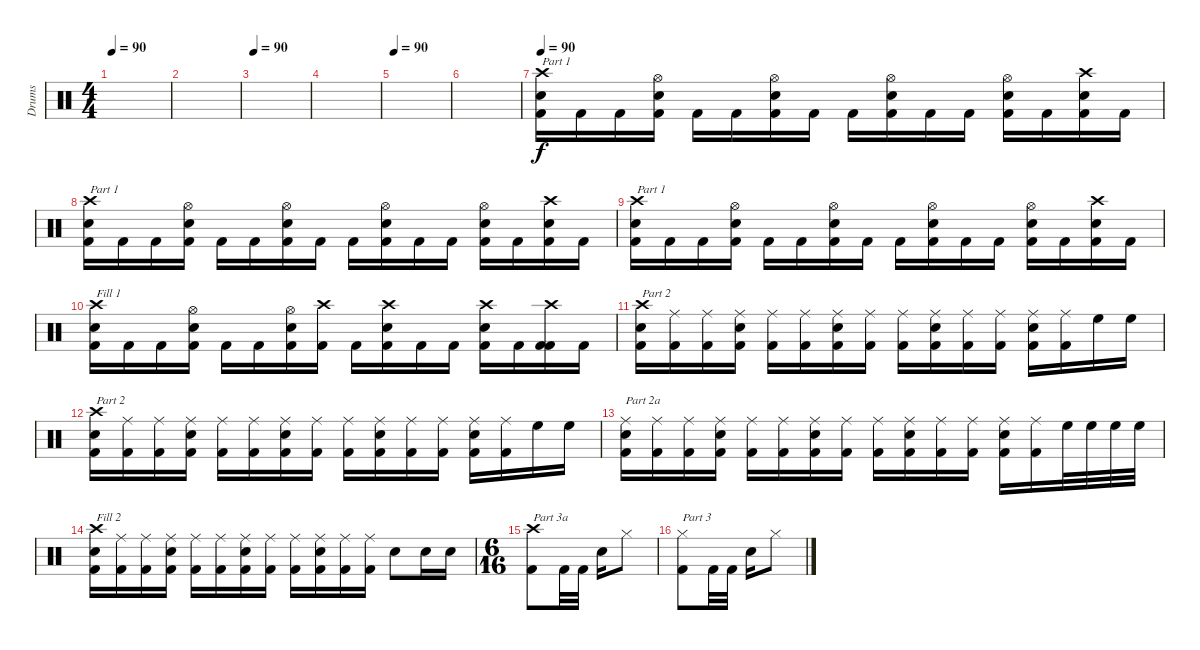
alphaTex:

\track ("Drums" "Drums") {instrument percussion}
\staff {score}
\articulation defaults
\ts (4 4)
\tempo 90
\tempo 85
\tempo 90
\clef neutral
\ks c
|
|
\tempo 90
|
|
\tempo 90
|
|
\tempo 90
("Crash high (hit)" "Snare (hit) 2" "Kick (hit) 2").16{txt "Part 1"} "Kick (hit) 2".16 "Kick (hit) 2".16 ("Hi-Hat (open)" "Snare (hit) 2" "Kick (hit) 2").16 "Kick (hit) 2".16 "Kick (hit) 2".16 ("Hi-Hat (open)" "Snare (hit) 2" "Kick (hit) 2").16 "Kick (hit) 2".16 "Kick (hit) 2".16 ("Hi-Hat (open)" "Snare (hit) 2" "Kick (hit) 2").16 "Kick (hit) 2".16 "Kick (hit) 2".16 ("Hi-Hat (open)" "Snare (hit) 2" "Kick (hit) 2").16 "Kick (hit) 2".16 ("Crash high (hit)" "Snare (hit) 2" "Kick (hit) 2").16 "Kick (hit) 2".16 |
("Crash high (hit)" "Snare (hit) 2" "Kick (hit) 2").16{txt "Part 1"} "Kick (hit) 2".16 "Kick (hit) 2".16 ("Hi-Hat (open)" "Snare (hit) 2" "Kick (hit) 2").16 "Kick (hit) 2".16 "Kick (hit) 2".16 ("Hi-Hat (open)" "Snare (hit) 2" "Kick (hit) 2").16 "Kick (hit) 2".16 "Kick (hit) 2".16 ("Hi-Hat (open)" "Snare (hit) 2" "Kick (hit) 2").16 "Kick (hit) 2".16 "Kick (hit) 2".16 ("Hi-Hat (open)" "Snare (hit) 2" "Kick (hit) 2").16 "Kick (hit) 2".16 ("Crash high (hit)" "Snare (hit) 2" "Kick (hit) 2").16 "Kick (hit) 2".16 |
("Crash high (hit)" "Snare (hit) 2" "Kick (hit) 2").16{txt "Part 1"} "Kick (hit) 2".16 "Kick (hit) 2".16 ("Hi-Hat (open)" "Snare (hit) 2" "Kick (hit) 2").16 "Kick (hit) 2".16 "Kick (hit) 2".16 ("Hi-Hat (open)" "Snare (hit) 2" "Kick (hit) 2").16 "Kick (hit) 2".16 "Kick (hit) 2".16 ("Hi-Hat (open)" "Snare (hit) 2" "Kick (hit) 2").16 "Kick (hit) 2".16 "Kick (hit) 2".16 ("Hi-Hat (open)" "Snare (hit) 2" "Kick (hit) 2").16 "Kick (hit) 2".16 ("Crash high (hit)" "Snare (hit) 2" "Kick (hit) 2").16 "Kick (hit) 2".16 |
("Crash high (hit)" "Snare (hit) 2" "Kick (hit) 2").16{txt "Fill 1"} "Kick (hit) 2".16 "Kick (hit) 2".16 ("Hi-Hat (open)" "Snare (hit) 2" "Kick (hit) 2").16 "Kick (hit) 2".16 "Kick (hit) 2".16 ("Hi-Hat (open)" "Snare (hit) 2" "Kick (hit) 2").16 ("Crash high (hit)" "Kick (hit) 2").16 "Kick (hit) 2".16 ("Crash high (hit)" "Snare (hit) 2" "Kick (hit) 2").16 "Kick (hit) 2".16 "Kick (hit) 2".16 ("Crash high (hit)" "Snare (hit) 2" "Kick (hit) 2").16 "Kick (hit) 2".16 ("Crash high (hit)" "Kick (hit) 2" "Kick (hit) 2").16 "Kick (hit) 2".16 |
("Crash high (hit)" "Snare (hit) 2" "Kick (hit) 2").16{txt "Part 2"} ("Ride (middle)" "Kick (hit) 2").16 ("Ride (middle)" "Kick (hit) 2").16 ("Ride (middle)" "Snare (hit) 2" "Kick (hit) 2").16 ("Ride (middle)" "Kick (hit) 2").16 ("Ride (middle)" "Kick (hit) 2").16 ("Ride (middle)" "Snare (hit) 2" "Kick (hit) 2").16 ("Ride (middle)" "Kick (hit) 2").16 ("Ride (middle)" "Kick (hit) 2").16 ("Ride (middle)" "Snare (hit) 2" "Kick (hit) 2").16 ("Ride (middle)" "Kick (hit) 2").16 ("Ride (middle)" "Kick (hit) 2").16 ("Ride (middle)" "Snare (hit) 2" "Kick (hit) 2").16 ("Ride (middle)" "Kick (hit) 2").16 "High Floor Tom (hit)".16 "High Floor Tom (hit)".16 |
("Crash high (hit)" "Snare (hit) 2" "Kick (hit) 2").16{txt "Part 2"} ("Ride (middle)" "Kick (hit) 2").16 ("Ride (middle)" "Kick (hit) 2").16 ("Ride (middle)" "Snare (hit) 2" "Kick (hit) 2").16 ("Ride (middle)" "Kick (hit) 2").16 ("Ride (middle)" "Kick (hit) 2").16 ("Ride (middle)" "Snare (hit) 2" "Kick (hit) 2").16 ("Ride (middle)" "Kick (hit) 2").16 ("Ride (middle)" "Kick (hit) 2").16 ("Ride (middle)" "Snare (hit) 2" "Kick (hit) 2").16 ("Ride (middle)" "Kick (hit) 2").16 ("Ride (middle)" "Kick (hit) 2").16 ("Ride (middle)" "Snare (hit) 2" "Kick (hit) 2").16 ("Ride (middle)" "Kick (hit) 2").16 "High Floor Tom (hit)".16 "High Floor Tom (hit)".16 |
("Ride (middle)" "Snare (hit) 2" "Kick (hit) 2").16{txt "Part 2a"} ("Ride (middle)" "Kick (hit) 2").16 ("Ride (middle)" "Kick (hit) 2").16 ("Ride (middle)" "Snare (hit) 2" "Kick (hit) 2").16 ("Ride (middle)" "Kick (hit) 2").16 ("Ride (middle)" "Kick (hit) 2").16 ("Ride (middle)" "Snare (hit) 2" "Kick (hit) 2").16 ("Ride (middle)" "Kick (hit) 2").16 ("Ride (middle)" "Kick (hit) 2").16 ("Ride (middle)" "Snare (hit) 2" "Kick (hit) 2").16 ("Ride (middle)" "Kick (hit) 2").16 ("Ride (middle)" "Kick (hit) 2").16 ("Ride (middle)" "Snare (hit) 2" "Kick (hit) 2").16 ("Ride (middle)" "Kick (hit) 2").16 "High Floor Tom (hit)".32 "High Floor Tom (hit)".32 "High Floor Tom (hit)".32 "High Floor Tom (hit)".32 |
("Crash high (hit)" "Snare (hit) 2" "Kick (hit) 2").16{txt "Fill 2"} ("Ride (middle)" "Kick (hit) 2").16 ("Ride (middle)" "Kick (hit) 2").16 ("Ride (middle)" "Snare (hit) 2" "Kick (hit) 2").16 ("Ride (middle)" "Kick (hit) 2").16 ("Ride (middle)" "Kick (hit) 2").16 ("Ride (middle)" "Snare (hit) 2" "Kick (hit) 2").16 ("Ride (middle)" "Kick (hit) 2").16 ("Ride (middle)" "Kick (hit) 2").16 ("Ride (middle)" "Snare (hit) 2" "Kick (hit) 2").16 ("Ride (middle)" "Kick (hit) 2").16 ("Ride (middle)" "Kick (hit) 2").16 "Snare (hit) 2".8 "Snare (hit) 2".16 "Snare (hit) 2".16 |
\ts (6 16)
("Crash high (hit)" "Kick (hit) 2").8{txt "Part 3a"} "Kick (hit) 2".32 "Kick (hit) 2".32 "Snare (hit) 2".16 "Hi-Hat (closed)".8 |
("Hi-Hat (closed)" "Kick (hit) 2").8{txt "Part 3"} "Kick (hit) 2".32 "Kick (hit) 2".32 "Snare (hit) 2".16 "Hi-Hat (closed)".8
